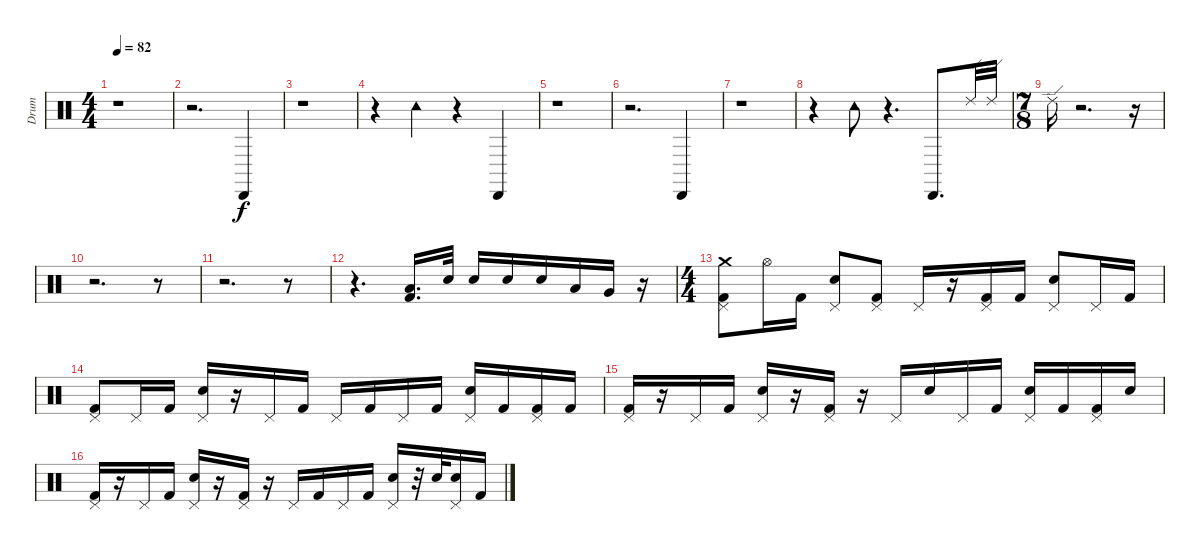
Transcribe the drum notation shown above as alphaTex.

\track ("Drum" "Drum") {instrument percussion}
\staff {score}
\articulation defaults
\ts (4 4)
\tempo 82
\clef neutral
\ks c
r.1{dy f} |
r.2{d} "Cabasa (hit)".4 |
r.1 |
r.4 "Tambourine (hit)".4 r.4 "Cabasa (hit)".4 |
r.1 |
r.2{d} "Cabasa (hit)".4 |
r.1 |
r.4 "Tambourine (hit)".8 r.4{d} "Cabasa (hit)".8{d} "Ride (edge) 2".32 "Ride (edge) 2".32 |
\ts (7 8)
"Ride (edge) 2".16 r.2{d} r.16 |
r.2{d} r.8 |
r.2{d} r.8 |
r.4{d} ("Low Tom (hit)" "Kick (hit) 2").16{d} "Electric Snare (hit)".32 "Electric Snare (hit)".16 "Electric Snare (hit)".16 "Electric Snare (hit)".16 "Low Tom (hit)".16 "Very Low Tom (hit)".16 r.16 |
\ts (4 4)
("Crash medium (hit)" "Pedal Hi-Hat (hit)" "Kick (hit) 2").8 "Hi-Hat (open)".16 "Kick (hit) 2".16 ("Pedal Hi-Hat (hit)" "Electric Snare (hit)").8 ("Pedal Hi-Hat (hit)" "Kick (hit) 2").8 "Pedal Hi-Hat (hit)".16 r.16 ("Pedal Hi-Hat (hit)" "Kick (hit) 2").16 "Kick (hit) 2".16 ("Pedal Hi-Hat (hit)" "Electric Snare (hit)").8 "Pedal Hi-Hat (hit)".16 "Kick (hit) 2".16 |
("Kick (hit) 2" "Pedal Hi-Hat (hit)").8 "Pedal Hi-Hat (hit)".16 "Kick (hit) 2".16 ("Electric Snare (hit)" "Pedal Hi-Hat (hit)").16 r.16 "Pedal Hi-Hat (hit)".16 "Kick (hit) 2".16 "Pedal Hi-Hat (hit)".16 "Kick (hit) 2".16 "Pedal Hi-Hat (hit)".16 "Kick (hit) 2".16 ("Electric Snare (hit)" "Pedal Hi-Hat (hit)").16 "Kick (hit) 2".16 ("Kick (hit) 2" "Pedal Hi-Hat (hit)").16 "Kick (hit) 2".16 |
("Pedal Hi-Hat (hit)" "Kick (hit) 2").16 r.16 "Pedal Hi-Hat (hit)".16 "Kick (hit) 2".16 ("Pedal Hi-Hat (hit)" "Electric Snare (hit)").16 r.16 ("Pedal Hi-Hat (hit)" "Kick (hit) 2").16 r.16 "Pedal Hi-Hat (hit)".16 "Electric Snare (hit)".16 "Pedal Hi-Hat (hit)".16 "Kick (hit) 2".16 ("Pedal Hi-Hat (hit)" "Electric Snare (hit)").16 "Kick (hit) 2".16 ("Pedal Hi-Hat (hit)" "Kick (hit) 2").16 "Electric Snare (hit)".16 |
("Pedal Hi-Hat (hit)" "Kick (hit) 2").16 r.16 "Pedal Hi-Hat (hit)".16 "Kick (hit) 2".16 ("Pedal Hi-Hat (hit)" "Electric Snare (hit)").16 r.16 ("Pedal Hi-Hat (hit)" "Kick (hit) 2").16 r.16 "Pedal Hi-Hat (hit)".16 "Kick (hit) 2".16 "Pedal Hi-Hat (hit)".16 "Kick (hit) 2".16 ("Pedal Hi-Hat (hit)" "Electric Snare (hit)").16 r.32 "Electric Snare (hit)".32 ("Pedal Hi-Hat (hit)" "Electric Snare (hit)").16 "Kick (hit) 2".16
